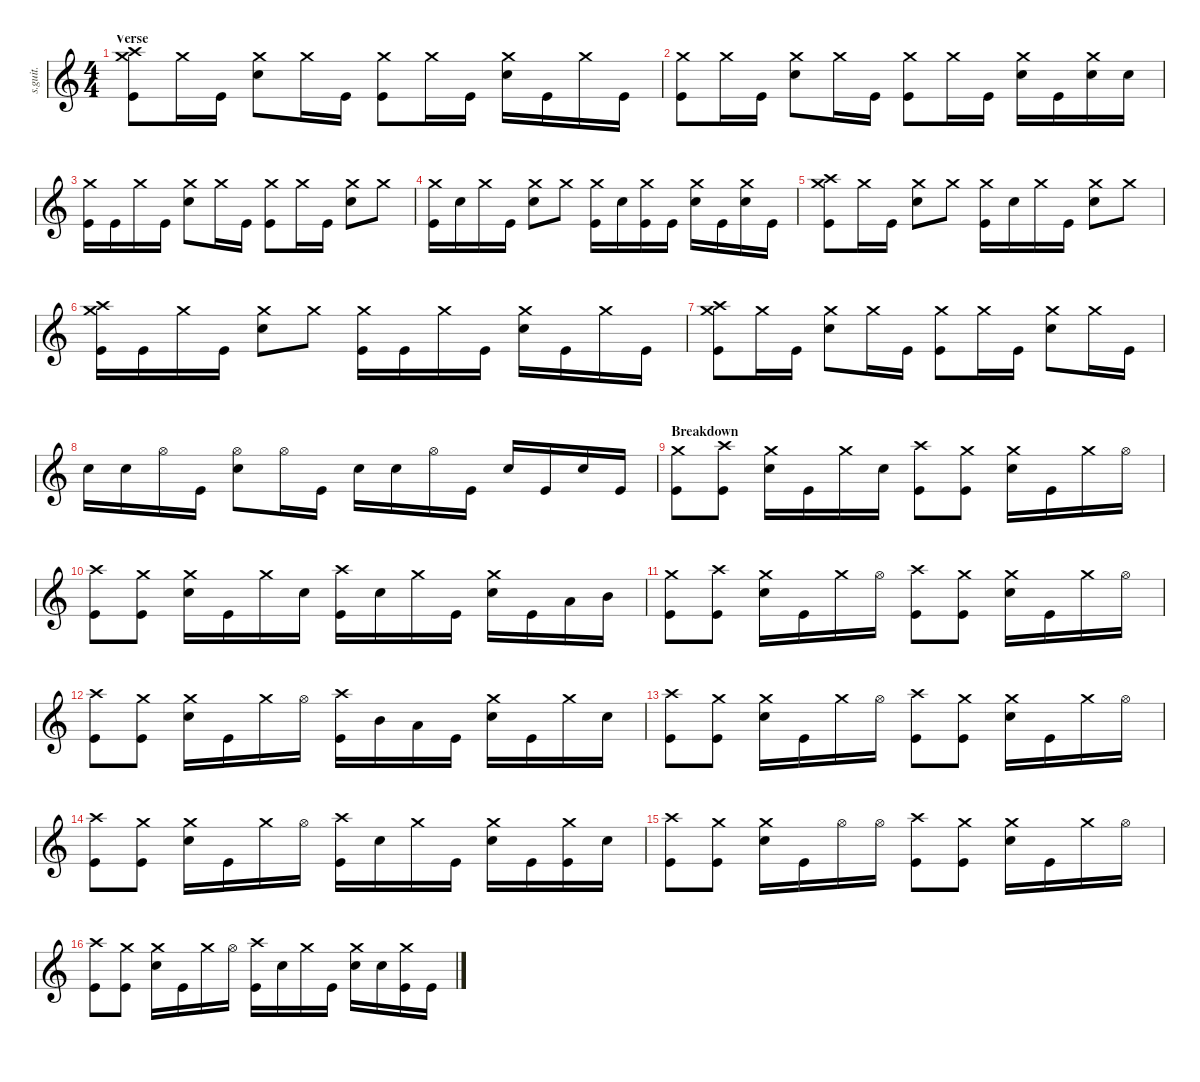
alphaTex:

\defaultSystemsLayout 4
\hideDynamics
\bracketExtendMode nobrackets
\track ("Abe Cunningham" "s.guit.") {instrument percussion}
\staff {score}
\articulation defaults
\ts (4 4)
\section ("" "Verse")
\tempo (93 hide)
\clef g2
\ks c
("Kick (hit)" "Crash high (hit)" "Crash medium (hit)").8{lyrics (0 "") lyrics (1 "") lyrics (2 "") lyrics (3 "") lyrics (4 "") dy fff} "Crash medium (hit)".16{lyrics (0 "") lyrics (1 "") lyrics (2 "") lyrics (3 "") lyrics (4 "")} "Kick (hit)".16{lyrics (0 "") lyrics (1 "") lyrics (2 "") lyrics (3 "") lyrics (4 "")} ("Snare (hit) 2" "Crash medium (hit)").8{lyrics (0 "") lyrics (1 "") lyrics (2 "") lyrics (3 "") lyrics (4 "")} "Crash medium (hit)".16{lyrics (0 "") lyrics (1 "") lyrics (2 "") lyrics (3 "") lyrics (4 "")} "Kick (hit)".16{lyrics (0 "") lyrics (1 "") lyrics (2 "") lyrics (3 "") lyrics (4 "")} ("Kick (hit)" "Crash medium (hit)").8{lyrics (0 "") lyrics (1 "") lyrics (2 "") lyrics (3 "") lyrics (4 "")} "Crash medium (hit)".16{lyrics (0 "") lyrics (1 "") lyrics (2 "") lyrics (3 "") lyrics (4 "")} "Kick (hit)".16{lyrics (0 "") lyrics (1 "") lyrics (2 "") lyrics (3 "") lyrics (4 "")} ("Snare (hit) 2" "Crash medium (hit)").16{lyrics (0 "") lyrics (1 "") lyrics (2 "") lyrics (3 "") lyrics (4 "")} "Kick (hit)".16{lyrics (0 "") lyrics (1 "") lyrics (2 "") lyrics (3 "") lyrics (4 "")} "Crash medium (hit)".16{lyrics (0 "") lyrics (1 "") lyrics (2 "") lyrics (3 "") lyrics (4 "")} "Kick (hit)".16{lyrics (0 "") lyrics (1 "") lyrics (2 "") lyrics (3 "") lyrics (4 "")} |
("Kick (hit)" "Crash medium (hit)").8{lyrics (0 "") lyrics (1 "") lyrics (2 "") lyrics (3 "") lyrics (4 "")} "Crash medium (hit)".16{lyrics (0 "") lyrics (1 "") lyrics (2 "") lyrics (3 "") lyrics (4 "")} "Kick (hit)".16{lyrics (0 "") lyrics (1 "") lyrics (2 "") lyrics (3 "") lyrics (4 "")} ("Snare (hit) 2" "Crash medium (hit)").8{lyrics (0 "") lyrics (1 "") lyrics (2 "") lyrics (3 "") lyrics (4 "")} "Crash medium (hit)".16{lyrics (0 "") lyrics (1 "") lyrics (2 "") lyrics (3 "") lyrics (4 "")} "Kick (hit)".16{lyrics (0 "") lyrics (1 "") lyrics (2 "") lyrics (3 "") lyrics (4 "")} ("Crash medium (hit)" "Kick (hit)").8{lyrics (0 "") lyrics (1 "") lyrics (2 "") lyrics (3 "") lyrics (4 "")} "Crash medium (hit)".16{lyrics (0 "") lyrics (1 "") lyrics (2 "") lyrics (3 "") lyrics (4 "")} "Kick (hit)".16{lyrics (0 "") lyrics (1 "") lyrics (2 "") lyrics (3 "") lyrics (4 "")} ("Snare (hit) 2" "Crash medium (hit)").16{lyrics (0 "") lyrics (1 "") lyrics (2 "") lyrics (3 "") lyrics (4 "")} "Kick (hit)".16{lyrics (0 "") lyrics (1 "") lyrics (2 "") lyrics (3 "") lyrics (4 "")} ("Crash medium (hit)" "Snare (hit) 2").16{lyrics (0 "") lyrics (1 "") lyrics (2 "") lyrics (3 "") lyrics (4 "")} "Snare (hit) 2".16{lyrics (0 "") lyrics (1 "") lyrics (2 "") lyrics (3 "") lyrics (4 "")} |
("Kick (hit)" "Crash medium (hit)").16{lyrics (0 "") lyrics (1 "") lyrics (2 "") lyrics (3 "") lyrics (4 "")} "Kick (hit)".16{lyrics (0 "") lyrics (1 "") lyrics (2 "") lyrics (3 "") lyrics (4 "")} "Crash medium (hit)".16{lyrics (0 "") lyrics (1 "") lyrics (2 "") lyrics (3 "") lyrics (4 "")} "Kick (hit)".16{lyrics (0 "") lyrics (1 "") lyrics (2 "") lyrics (3 "") lyrics (4 "")} ("Snare (hit) 2" "Crash medium (hit)").8{lyrics (0 "") lyrics (1 "") lyrics (2 "") lyrics (3 "") lyrics (4 "")} "Crash medium (hit)".16{lyrics (0 "") lyrics (1 "") lyrics (2 "") lyrics (3 "") lyrics (4 "")} "Kick (hit)".16{lyrics (0 "") lyrics (1 "") lyrics (2 "") lyrics (3 "") lyrics (4 "")} ("Kick (hit)" "Crash medium (hit)").8{lyrics (0 "") lyrics (1 "") lyrics (2 "") lyrics (3 "") lyrics (4 "")} "Crash medium (hit)".16{lyrics (0 "") lyrics (1 "") lyrics (2 "") lyrics (3 "") lyrics (4 "")} "Kick (hit)".16{lyrics (0 "") lyrics (1 "") lyrics (2 "") lyrics (3 "") lyrics (4 "")} ("Snare (hit) 2" "Crash medium (hit)").8{lyrics (0 "") lyrics (1 "") lyrics (2 "") lyrics (3 "") lyrics (4 "")} "Crash medium (hit)".8{lyrics (0 "") lyrics (1 "") lyrics (2 "") lyrics (3 "") lyrics (4 "")} |
("Crash medium (hit)" "Kick (hit)").16{lyrics (0 "") lyrics (1 "") lyrics (2 "") lyrics (3 "") lyrics (4 "")} "Snare (hit) 2".16{lyrics (0 "") lyrics (1 "") lyrics (2 "") lyrics (3 "") lyrics (4 "")} "Crash medium (hit)".16{lyrics (0 "") lyrics (1 "") lyrics (2 "") lyrics (3 "") lyrics (4 "")} "Kick (hit)".16{lyrics (0 "") lyrics (1 "") lyrics (2 "") lyrics (3 "") lyrics (4 "")} ("Crash medium (hit)" "Snare (hit) 2").8{lyrics (0 "") lyrics (1 "") lyrics (2 "") lyrics (3 "") lyrics (4 "")} "Crash medium (hit)".8{lyrics (0 "") lyrics (1 "") lyrics (2 "") lyrics (3 "") lyrics (4 "")} ("Crash medium (hit)" "Kick (hit)").16{lyrics (0 "") lyrics (1 "") lyrics (2 "") lyrics (3 "") lyrics (4 "")} "Snare (hit) 2".16{lyrics (0 "") lyrics (1 "") lyrics (2 "") lyrics (3 "") lyrics (4 "")} ("Crash medium (hit)" "Kick (hit)").16{lyrics (0 "") lyrics (1 "") lyrics (2 "") lyrics (3 "") lyrics (4 "")} "Kick (hit)".16{lyrics (0 "") lyrics (1 "") lyrics (2 "") lyrics (3 "") lyrics (4 "")} ("Crash medium (hit)" "Snare (hit) 2").16{lyrics (0 "") lyrics (1 "") lyrics (2 "") lyrics (3 "") lyrics (4 "")} "Kick (hit)".16{lyrics (0 "") lyrics (1 "") lyrics (2 "") lyrics (3 "") lyrics (4 "")} ("Crash medium (hit)" "Snare (hit) 2").16{lyrics (0 "") lyrics (1 "") lyrics (2 "") lyrics (3 "") lyrics (4 "")} "Kick (hit)".16{lyrics (0 "") lyrics (1 "") lyrics (2 "") lyrics (3 "") lyrics (4 "")} |
("Kick (hit)" "Crash high (hit)" "Crash medium (hit)").8{lyrics (0 "") lyrics (1 "") lyrics (2 "") lyrics (3 "") lyrics (4 "")} "Crash medium (hit)".16{lyrics (0 "") lyrics (1 "") lyrics (2 "") lyrics (3 "") lyrics (4 "")} "Kick (hit)".16{lyrics (0 "") lyrics (1 "") lyrics (2 "") lyrics (3 "") lyrics (4 "")} ("Snare (hit) 2" "Crash medium (hit)").8{lyrics (0 "") lyrics (1 "") lyrics (2 "") lyrics (3 "") lyrics (4 "")} "Crash medium (hit)".8{lyrics (0 "") lyrics (1 "") lyrics (2 "") lyrics (3 "") lyrics (4 "")} ("Crash medium (hit)" "Kick (hit)").16{lyrics (0 "") lyrics (1 "") lyrics (2 "") lyrics (3 "") lyrics (4 "")} "Snare (hit) 2".16{lyrics (0 "") lyrics (1 "") lyrics (2 "") lyrics (3 "") lyrics (4 "")} "Crash medium (hit)".16{lyrics (0 "") lyrics (1 "") lyrics (2 "") lyrics (3 "") lyrics (4 "")} "Kick (hit)".16{lyrics (0 "") lyrics (1 "") lyrics (2 "") lyrics (3 "") lyrics (4 "")} ("Snare (hit) 2" "Crash medium (hit)").8{lyrics (0 "") lyrics (1 "") lyrics (2 "") lyrics (3 "") lyrics (4 "")} "Crash medium (hit)".8{lyrics (0 "") lyrics (1 "") lyrics (2 "") lyrics (3 "") lyrics (4 "")} |
("Kick (hit)" "Crash high (hit)" "Crash medium (hit)").16{lyrics (0 "") lyrics (1 "") lyrics (2 "") lyrics (3 "") lyrics (4 "")} "Kick (hit)".16{lyrics (0 "") lyrics (1 "") lyrics (2 "") lyrics (3 "") lyrics (4 "")} "Crash medium (hit)".16{lyrics (0 "") lyrics (1 "") lyrics (2 "") lyrics (3 "") lyrics (4 "")} "Kick (hit)".16{lyrics (0 "") lyrics (1 "") lyrics (2 "") lyrics (3 "") lyrics (4 "")} ("Snare (hit) 2" "Crash medium (hit)").8{lyrics (0 "") lyrics (1 "") lyrics (2 "") lyrics (3 "") lyrics (4 "")} "Crash medium (hit)".8{lyrics (0 "") lyrics (1 "") lyrics (2 "") lyrics (3 "") lyrics (4 "")} ("Kick (hit)" "Crash medium (hit)").16{lyrics (0 "") lyrics (1 "") lyrics (2 "") lyrics (3 "") lyrics (4 "")} "Kick (hit)".16{lyrics (0 "") lyrics (1 "") lyrics (2 "") lyrics (3 "") lyrics (4 "")} "Crash medium (hit)".16{lyrics (0 "") lyrics (1 "") lyrics (2 "") lyrics (3 "") lyrics (4 "")} "Kick (hit)".16{lyrics (0 "") lyrics (1 "") lyrics (2 "") lyrics (3 "") lyrics (4 "")} ("Snare (hit) 2" "Crash medium (hit)").16{lyrics (0 "") lyrics (1 "") lyrics (2 "") lyrics (3 "") lyrics (4 "")} "Kick (hit)".16{lyrics (0 "") lyrics (1 "") lyrics (2 "") lyrics (3 "") lyrics (4 "")} "Crash medium (hit)".16{lyrics (0 "") lyrics (1 "") lyrics (2 "") lyrics (3 "") lyrics (4 "")} "Kick (hit)".16{lyrics (0 "") lyrics (1 "") lyrics (2 "") lyrics (3 "") lyrics (4 "")} |
("Kick (hit)" "Crash high (hit)" "Crash medium (hit)").8{lyrics (0 "") lyrics (1 "") lyrics (2 "") lyrics (3 "") lyrics (4 "")} "Crash medium (hit)".16{lyrics (0 "") lyrics (1 "") lyrics (2 "") lyrics (3 "") lyrics (4 "")} "Kick (hit)".16{lyrics (0 "") lyrics (1 "") lyrics (2 "") lyrics (3 "") lyrics (4 "")} ("Snare (hit) 2" "Crash medium (hit)").8{lyrics (0 "") lyrics (1 "") lyrics (2 "") lyrics (3 "") lyrics (4 "")} "Crash medium (hit)".16{lyrics (0 "") lyrics (1 "") lyrics (2 "") lyrics (3 "") lyrics (4 "")} "Kick (hit)".16{lyrics (0 "") lyrics (1 "") lyrics (2 "") lyrics (3 "") lyrics (4 "")} ("Kick (hit)" "Crash medium (hit)").8{lyrics (0 "") lyrics (1 "") lyrics (2 "") lyrics (3 "") lyrics (4 "")} "Crash medium (hit)".16{lyrics (0 "") lyrics (1 "") lyrics (2 "") lyrics (3 "") lyrics (4 "")} "Kick (hit)".16{lyrics (0 "") lyrics (1 "") lyrics (2 "") lyrics (3 "") lyrics (4 "")} ("Snare (hit) 2" "Crash medium (hit)").8{lyrics (0 "") lyrics (1 "") lyrics (2 "") lyrics (3 "") lyrics (4 "")} "Crash medium (hit)".16{lyrics (0 "") lyrics (1 "") lyrics (2 "") lyrics (3 "") lyrics (4 "")} "Kick (hit)".16{lyrics (0 "") lyrics (1 "") lyrics (2 "") lyrics (3 "") lyrics (4 "")} |
"Snare (hit) 2".16{lyrics (0 "") lyrics (1 "") lyrics (2 "") lyrics (3 "") lyrics (4 "")} "Snare (hit) 2".16{lyrics (0 "") lyrics (1 "") lyrics (2 "") lyrics (3 "") lyrics (4 "")} "Hi-Hat (open)".16{lyrics (0 "") lyrics (1 "") lyrics (2 "") lyrics (3 "") lyrics (4 "")} "Kick (hit)".16{lyrics (0 "") lyrics (1 "") lyrics (2 "") lyrics (3 "") lyrics (4 "")} ("Hi-Hat (open)" "Snare (hit) 2").8{lyrics (0 "") lyrics (1 "") lyrics (2 "") lyrics (3 "") lyrics (4 "")} "Hi-Hat (open)".16{lyrics (0 "") lyrics (1 "") lyrics (2 "") lyrics (3 "") lyrics (4 "")} "Kick (hit)".16{lyrics (0 "") lyrics (1 "") lyrics (2 "") lyrics (3 "") lyrics (4 "")} "Snare (hit) 2".16{lyrics (0 "") lyrics (1 "") lyrics (2 "") lyrics (3 "") lyrics (4 "")} "Snare (hit) 2".16{lyrics (0 "") lyrics (1 "") lyrics (2 "") lyrics (3 "") lyrics (4 "")} "Hi-Hat (open)".16{lyrics (0 "") lyrics (1 "") lyrics (2 "") lyrics (3 "") lyrics (4 "")} "Kick (hit)".16{lyrics (0 "") lyrics (1 "") lyrics (2 "") lyrics (3 "") lyrics (4 "")} "Snare (hit) 2".16{lyrics (0 "") lyrics (1 "") lyrics (2 "") lyrics (3 "") lyrics (4 "")} "Kick (hit)".16{lyrics (0 "") lyrics (1 "") lyrics (2 "") lyrics (3 "") lyrics (4 "")} "Snare (hit) 2".16{lyrics (0 "") lyrics (1 "") lyrics (2 "") lyrics (3 "") lyrics (4 "")} "Kick (hit)".16{lyrics (0 "") lyrics (1 "") lyrics (2 "") lyrics (3 "") lyrics (4 "")} |
\section ("" "Breakdown")
("Kick (hit)" "Crash medium (hit)").8{lyrics (0 "") lyrics (1 "") lyrics (2 "") lyrics (3 "") lyrics (4 "")} ("Kick (hit)" "Crash high (hit)").8{lyrics (0 "") lyrics (1 "") lyrics (2 "") lyrics (3 "") lyrics (4 "")} ("Snare (hit) 2" "Crash medium (hit)").16{lyrics (0 "") lyrics (1 "") lyrics (2 "") lyrics (3 "") lyrics (4 "")} "Kick (hit)".16{lyrics (0 "") lyrics (1 "") lyrics (2 "") lyrics (3 "") lyrics (4 "")} "Crash medium (hit)".16{lyrics (0 "") lyrics (1 "") lyrics (2 "") lyrics (3 "") lyrics (4 "")} "Snare (hit) 2".16{lyrics (0 "") lyrics (1 "") lyrics (2 "") lyrics (3 "") lyrics (4 "")} ("Kick (hit)" "Crash high (hit)").8{lyrics (0 "") lyrics (1 "") lyrics (2 "") lyrics (3 "") lyrics (4 "")} ("Kick (hit)" "Crash medium (hit)").8{lyrics (0 "") lyrics (1 "") lyrics (2 "") lyrics (3 "") lyrics (4 "")} ("Snare (hit) 2" "Crash medium (hit)").16{lyrics (0 "") lyrics (1 "") lyrics (2 "") lyrics (3 "") lyrics (4 "")} "Kick (hit)".16{lyrics (0 "") lyrics (1 "") lyrics (2 "") lyrics (3 "") lyrics (4 "")} "Crash medium (hit)".16{lyrics (0 "") lyrics (1 "") lyrics (2 "") lyrics (3 "") lyrics (4 "")} "Hi-Hat (open)".16{lyrics (0 "") lyrics (1 "") lyrics (2 "") lyrics (3 "") lyrics (4 "")} |
("Kick (hit)" "Crash high (hit)").8{lyrics (0 "") lyrics (1 "") lyrics (2 "") lyrics (3 "") lyrics (4 "")} ("Kick (hit)" "Crash medium (hit)").8{lyrics (0 "") lyrics (1 "") lyrics (2 "") lyrics (3 "") lyrics (4 "")} ("Snare (hit) 2" "Crash medium (hit)").16{lyrics (0 "") lyrics (1 "") lyrics (2 "") lyrics (3 "") lyrics (4 "")} "Kick (hit)".16{lyrics (0 "") lyrics (1 "") lyrics (2 "") lyrics (3 "") lyrics (4 "")} "Crash medium (hit)".16{lyrics (0 "") lyrics (1 "") lyrics (2 "") lyrics (3 "") lyrics (4 "")} "Snare (hit) 2".16{lyrics (0 "") lyrics (1 "") lyrics (2 "") lyrics (3 "") lyrics (4 "")} ("Kick (hit)" "Crash high (hit)").16{lyrics (0 "") lyrics (1 "") lyrics (2 "") lyrics (3 "") lyrics (4 "")} "Snare (hit) 2".16{lyrics (0 "") lyrics (1 "") lyrics (2 "") lyrics (3 "") lyrics (4 "")} "Crash medium (hit)".16{lyrics (0 "") lyrics (1 "") lyrics (2 "") lyrics (3 "") lyrics (4 "")} "Kick (hit)".16{lyrics (0 "") lyrics (1 "") lyrics (2 "") lyrics (3 "") lyrics (4 "")} ("Snare (hit) 2" "Crash medium (hit)").16{lyrics (0 "") lyrics (1 "") lyrics (2 "") lyrics (3 "") lyrics (4 "")} "Kick (hit)".16{lyrics (0 "") lyrics (1 "") lyrics (2 "") lyrics (3 "") lyrics (4 "")} "Low Tom (hit)".16{lyrics (0 "") lyrics (1 "") lyrics (2 "") lyrics (3 "") lyrics (4 "")} "Mid Tom (hit)".16{lyrics (0 "") lyrics (1 "") lyrics (2 "") lyrics (3 "") lyrics (4 "")} |
("Kick (hit)" "Crash medium (hit)").8{lyrics (0 "") lyrics (1 "") lyrics (2 "") lyrics (3 "") lyrics (4 "")} ("Kick (hit)" "Crash high (hit)").8{lyrics (0 "") lyrics (1 "") lyrics (2 "") lyrics (3 "") lyrics (4 "")} ("Snare (hit) 2" "Crash medium (hit)").16{lyrics (0 "") lyrics (1 "") lyrics (2 "") lyrics (3 "") lyrics (4 "")} "Kick (hit)".16{lyrics (0 "") lyrics (1 "") lyrics (2 "") lyrics (3 "") lyrics (4 "")} "Crash medium (hit)".16{lyrics (0 "") lyrics (1 "") lyrics (2 "") lyrics (3 "") lyrics (4 "")} "Hi-Hat (open)".16{lyrics (0 "") lyrics (1 "") lyrics (2 "") lyrics (3 "") lyrics (4 "")} ("Kick (hit)" "Crash high (hit)").8{lyrics (0 "") lyrics (1 "") lyrics (2 "") lyrics (3 "") lyrics (4 "")} ("Kick (hit)" "Crash medium (hit)").8{lyrics (0 "") lyrics (1 "") lyrics (2 "") lyrics (3 "") lyrics (4 "")} ("Snare (hit) 2" "Crash medium (hit)").16{lyrics (0 "") lyrics (1 "") lyrics (2 "") lyrics (3 "") lyrics (4 "")} "Kick (hit)".16{lyrics (0 "") lyrics (1 "") lyrics (2 "") lyrics (3 "") lyrics (4 "")} "Crash medium (hit)".16{lyrics (0 "") lyrics (1 "") lyrics (2 "") lyrics (3 "") lyrics (4 "")} "Hi-Hat (open)".16{lyrics (0 "") lyrics (1 "") lyrics (2 "") lyrics (3 "") lyrics (4 "")} |
("Kick (hit)" "Crash high (hit)").8{lyrics (0 "") lyrics (1 "") lyrics (2 "") lyrics (3 "") lyrics (4 "")} ("Kick (hit)" "Crash medium (hit)").8{lyrics (0 "") lyrics (1 "") lyrics (2 "") lyrics (3 "") lyrics (4 "")} ("Snare (hit) 2" "Crash medium (hit)").16{lyrics (0 "") lyrics (1 "") lyrics (2 "") lyrics (3 "") lyrics (4 "")} "Kick (hit)".16{lyrics (0 "") lyrics (1 "") lyrics (2 "") lyrics (3 "") lyrics (4 "")} "Crash medium (hit)".16{lyrics (0 "") lyrics (1 "") lyrics (2 "") lyrics (3 "") lyrics (4 "")} "Hi-Hat (open)".16{lyrics (0 "") lyrics (1 "") lyrics (2 "") lyrics (3 "") lyrics (4 "")} ("Kick (hit)" "Crash high (hit)").16{lyrics (0 "") lyrics (1 "") lyrics (2 "") lyrics (3 "") lyrics (4 "")} "Mid Tom (hit)".16{lyrics (0 "") lyrics (1 "") lyrics (2 "") lyrics (3 "") lyrics (4 "")} "Low Tom (hit)".16{lyrics (0 "") lyrics (1 "") lyrics (2 "") lyrics (3 "") lyrics (4 "")} "Kick (hit)".16{lyrics (0 "") lyrics (1 "") lyrics (2 "") lyrics (3 "") lyrics (4 "")} ("Snare (hit) 2" "Crash medium (hit)").16{lyrics (0 "") lyrics (1 "") lyrics (2 "") lyrics (3 "") lyrics (4 "")} "Kick (hit)".16{lyrics (0 "") lyrics (1 "") lyrics (2 "") lyrics (3 "") lyrics (4 "")} "Crash medium (hit)".16{lyrics (0 "") lyrics (1 "") lyrics (2 "") lyrics (3 "") lyrics (4 "")} "Snare (hit) 2".16{lyrics (0 "") lyrics (1 "") lyrics (2 "") lyrics (3 "") lyrics (4 "")} |
("Kick (hit)" "Crash high (hit)").8{lyrics (0 "") lyrics (1 "") lyrics (2 "") lyrics (3 "") lyrics (4 "")} ("Kick (hit)" "Crash medium (hit)").8{lyrics (0 "") lyrics (1 "") lyrics (2 "") lyrics (3 "") lyrics (4 "")} ("Snare (hit) 2" "Crash medium (hit)").16{lyrics (0 "") lyrics (1 "") lyrics (2 "") lyrics (3 "") lyrics (4 "")} "Kick (hit)".16{lyrics (0 "") lyrics (1 "") lyrics (2 "") lyrics (3 "") lyrics (4 "")} "Crash medium (hit)".16{lyrics (0 "") lyrics (1 "") lyrics (2 "") lyrics (3 "") lyrics (4 "")} "Hi-Hat (open)".16{lyrics (0 "") lyrics (1 "") lyrics (2 "") lyrics (3 "") lyrics (4 "")} ("Kick (hit)" "Crash high (hit)").8{lyrics (0 "") lyrics (1 "") lyrics (2 "") lyrics (3 "") lyrics (4 "")} ("Kick (hit)" "Crash medium (hit)").8{lyrics (0 "") lyrics (1 "") lyrics (2 "") lyrics (3 "") lyrics (4 "")} ("Snare (hit) 2" "Crash medium (hit)").16{lyrics (0 "") lyrics (1 "") lyrics (2 "") lyrics (3 "") lyrics (4 "")} "Kick (hit)".16{lyrics (0 "") lyrics (1 "") lyrics (2 "") lyrics (3 "") lyrics (4 "")} "Crash medium (hit)".16{lyrics (0 "") lyrics (1 "") lyrics (2 "") lyrics (3 "") lyrics (4 "")} "Hi-Hat (open)".16{lyrics (0 "") lyrics (1 "") lyrics (2 "") lyrics (3 "") lyrics (4 "")} |
("Kick (hit)" "Crash high (hit)").8{lyrics (0 "") lyrics (1 "") lyrics (2 "") lyrics (3 "") lyrics (4 "")} ("Kick (hit)" "Crash medium (hit)").8{lyrics (0 "") lyrics (1 "") lyrics (2 "") lyrics (3 "") lyrics (4 "")} ("Snare (hit) 2" "Crash medium (hit)").16{lyrics (0 "") lyrics (1 "") lyrics (2 "") lyrics (3 "") lyrics (4 "")} "Kick (hit)".16{lyrics (0 "") lyrics (1 "") lyrics (2 "") lyrics (3 "") lyrics (4 "")} "Crash medium (hit)".16{lyrics (0 "") lyrics (1 "") lyrics (2 "") lyrics (3 "") lyrics (4 "")} "Hi-Hat (open)".16{lyrics (0 "") lyrics (1 "") lyrics (2 "") lyrics (3 "") lyrics (4 "")} ("Kick (hit)" "Crash high (hit)").16{lyrics (0 "") lyrics (1 "") lyrics (2 "") lyrics (3 "") lyrics (4 "")} "Snare (hit) 2".16{lyrics (0 "") lyrics (1 "") lyrics (2 "") lyrics (3 "") lyrics (4 "")} "Crash medium (hit)".16{lyrics (0 "") lyrics (1 "") lyrics (2 "") lyrics (3 "") lyrics (4 "")} "Kick (hit)".16{lyrics (0 "") lyrics (1 "") lyrics (2 "") lyrics (3 "") lyrics (4 "")} ("Snare (hit) 2" "Crash medium (hit)").16{lyrics (0 "") lyrics (1 "") lyrics (2 "") lyrics (3 "") lyrics (4 "")} "Kick (hit)".16{lyrics (0 "") lyrics (1 "") lyrics (2 "") lyrics (3 "") lyrics (4 "")} ("Kick (hit)" "Crash medium (hit)").16{lyrics (0 "") lyrics (1 "") lyrics (2 "") lyrics (3 "") lyrics (4 "")} "Snare (hit) 2".16{lyrics (0 "") lyrics (1 "") lyrics (2 "") lyrics (3 "") lyrics (4 "")} |
("Kick (hit)" "Crash high (hit)").8{lyrics (0 "") lyrics (1 "") lyrics (2 "") lyrics (3 "") lyrics (4 "")} ("Kick (hit)" "Crash medium (hit)").8{lyrics (0 "") lyrics (1 "") lyrics (2 "") lyrics (3 "") lyrics (4 "")} ("Snare (hit) 2" "Crash medium (hit)").16{lyrics (0 "") lyrics (1 "") lyrics (2 "") lyrics (3 "") lyrics (4 "")} "Kick (hit)".16{lyrics (0 "") lyrics (1 "") lyrics (2 "") lyrics (3 "") lyrics (4 "")} "Hi-Hat (open)".16{lyrics (0 "") lyrics (1 "") lyrics (2 "") lyrics (3 "") lyrics (4 "")} "Hi-Hat (open)".16{lyrics (0 "") lyrics (1 "") lyrics (2 "") lyrics (3 "") lyrics (4 "")} ("Kick (hit)" "Crash high (hit)").8{lyrics (0 "") lyrics (1 "") lyrics (2 "") lyrics (3 "") lyrics (4 "")} ("Kick (hit)" "Crash medium (hit)").8{lyrics (0 "") lyrics (1 "") lyrics (2 "") lyrics (3 "") lyrics (4 "")} ("Snare (hit) 2" "Crash medium (hit)").16{lyrics (0 "") lyrics (1 "") lyrics (2 "") lyrics (3 "") lyrics (4 "")} "Kick (hit)".16{lyrics (0 "") lyrics (1 "") lyrics (2 "") lyrics (3 "") lyrics (4 "")} "Crash medium (hit)".16{lyrics (0 "") lyrics (1 "") lyrics (2 "") lyrics (3 "") lyrics (4 "")} "Hi-Hat (open)".16{lyrics (0 "") lyrics (1 "") lyrics (2 "") lyrics (3 "") lyrics (4 "")} |
("Kick (hit)" "Crash high (hit)").8{lyrics (0 "") lyrics (1 "") lyrics (2 "") lyrics (3 "") lyrics (4 "")} ("Kick (hit)" "Crash medium (hit)").8{lyrics (0 "") lyrics (1 "") lyrics (2 "") lyrics (3 "") lyrics (4 "")} ("Snare (hit) 2" "Crash medium (hit)").16{lyrics (0 "") lyrics (1 "") lyrics (2 "") lyrics (3 "") lyrics (4 "")} "Kick (hit)".16{lyrics (0 "") lyrics (1 "") lyrics (2 "") lyrics (3 "") lyrics (4 "")} "Crash medium (hit)".16{lyrics (0 "") lyrics (1 "") lyrics (2 "") lyrics (3 "") lyrics (4 "")} "Hi-Hat (open)".16{lyrics (0 "") lyrics (1 "") lyrics (2 "") lyrics (3 "") lyrics (4 "")} ("Kick (hit)" "Crash high (hit)").16{lyrics (0 "") lyrics (1 "") lyrics (2 "") lyrics (3 "") lyrics (4 "")} "Snare (hit) 2".16{lyrics (0 "") lyrics (1 "") lyrics (2 "") lyrics (3 "") lyrics (4 "")} "Crash medium (hit)".16{lyrics (0 "") lyrics (1 "") lyrics (2 "") lyrics (3 "") lyrics (4 "")} "Kick (hit)".16{lyrics (0 "") lyrics (1 "") lyrics (2 "") lyrics (3 "") lyrics (4 "")} ("Snare (hit) 2" "Crash medium (hit)").16{lyrics (0 "") lyrics (1 "") lyrics (2 "") lyrics (3 "") lyrics (4 "")} "Snare (hit) 2".16{lyrics (0 "") lyrics (1 "") lyrics (2 "") lyrics (3 "") lyrics (4 "")} ("Kick (hit)" "Crash medium (hit)").16{lyrics (0 "") lyrics (1 "") lyrics (2 "") lyrics (3 "") lyrics (4 "")} "Kick (hit)".16{lyrics (0 "") lyrics (1 "") lyrics (2 "") lyrics (3 "") lyrics (4 "")}
